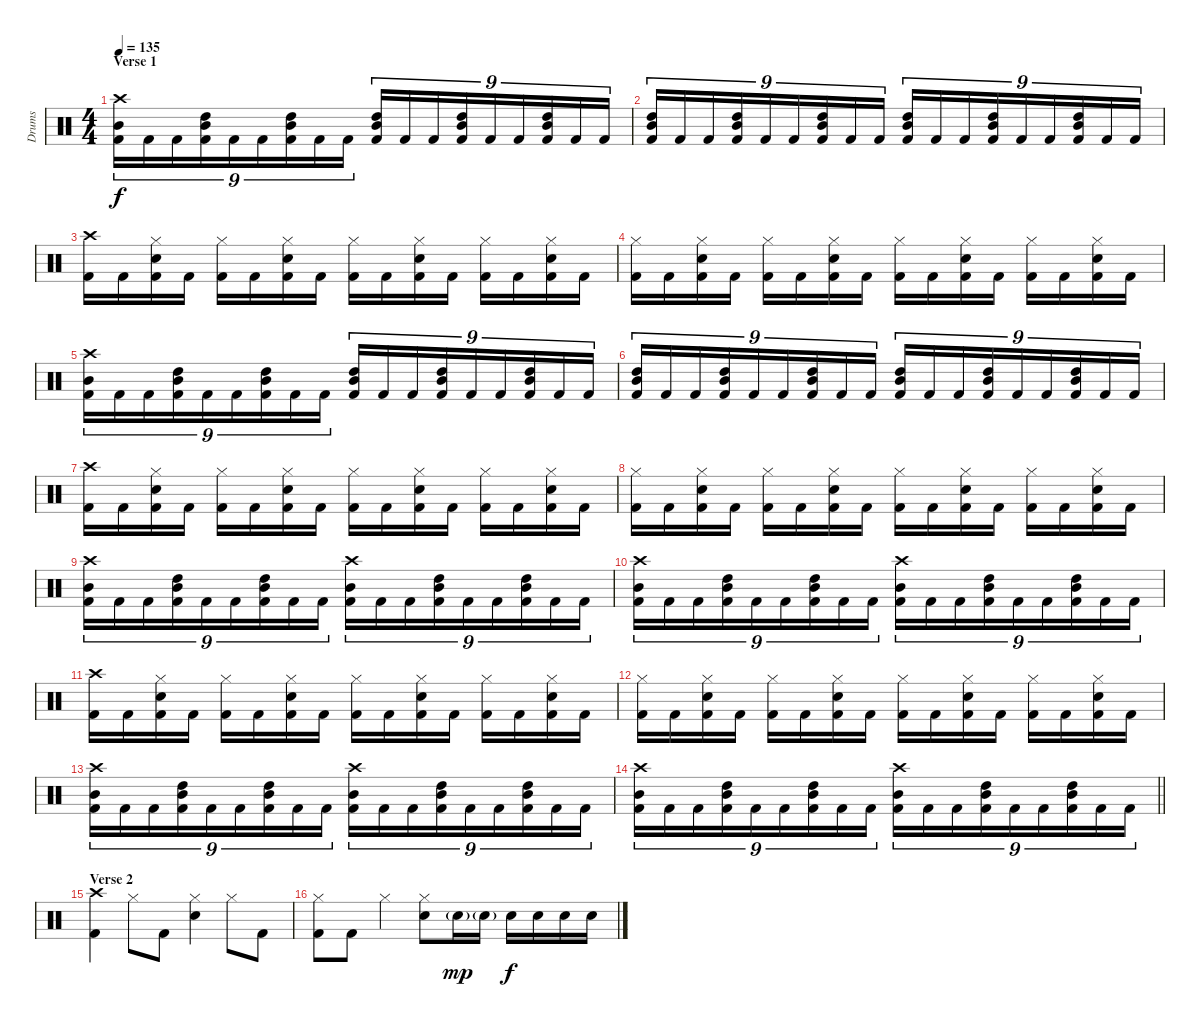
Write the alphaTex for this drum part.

\track ("Drums" "Drums") {instrument percussion}
\staff {score}
\articulation defaults
\ts (4 4)
\section ("" "Verse 1")
\tempo 135
\clef neutral
\ks c
("Crash high (hit)" "Mid Tom (hit)" "Kick (hit) 2").16{tu (9 8) dy f} "Kick (hit) 2".16{tu (9 8)} "Kick (hit) 2".16{tu (9 8)} ("High Tom (hit)" "Mid Tom (hit)" "Kick (hit) 2").16{tu (9 8)} "Kick (hit) 2".16{tu (9 8)} "Kick (hit) 2".16{tu (9 8)} ("High Tom (hit)" "Mid Tom (hit)" "Kick (hit) 2").16{tu (9 8)} "Kick (hit) 2".16{tu (9 8)} "Kick (hit) 2".16{tu (9 8)} ("High Tom (hit)" "Mid Tom (hit)" "Kick (hit) 2").16{tu (9 8)} "Kick (hit) 2".16{tu (9 8)} "Kick (hit) 2".16{tu (9 8)} ("High Tom (hit)" "Mid Tom (hit)" "Kick (hit) 2").16{tu (9 8)} "Kick (hit) 2".16{tu (9 8)} "Kick (hit) 2".16{tu (9 8)} ("High Tom (hit)" "Mid Tom (hit)" "Kick (hit) 2").16{tu (9 8)} "Kick (hit) 2".16{tu (9 8)} "Kick (hit) 2".16{tu (9 8)} |
("High Tom (hit)" "Mid Tom (hit)" "Kick (hit) 2").16{tu (9 8)} "Kick (hit) 2".16{tu (9 8)} "Kick (hit) 2".16{tu (9 8)} ("High Tom (hit)" "Mid Tom (hit)" "Kick (hit) 2").16{tu (9 8)} "Kick (hit) 2".16{tu (9 8)} "Kick (hit) 2".16{tu (9 8)} ("High Tom (hit)" "Mid Tom (hit)" "Kick (hit) 2").16{tu (9 8)} "Kick (hit) 2".16{tu (9 8)} "Kick (hit) 2".16{tu (9 8)} ("High Tom (hit)" "Mid Tom (hit)" "Kick (hit) 2").16{tu (9 8)} "Kick (hit) 2".16{tu (9 8)} "Kick (hit) 2".16{tu (9 8)} ("High Tom (hit)" "Mid Tom (hit)" "Kick (hit) 2").16{tu (9 8)} "Kick (hit) 2".16{tu (9 8)} "Kick (hit) 2".16{tu (9 8)} ("High Tom (hit)" "Mid Tom (hit)" "Kick (hit) 2").16{tu (9 8)} "Kick (hit) 2".16{tu (9 8)} "Kick (hit) 2".16{tu (9 8)} |
("Crash high (hit)" "Kick (hit) 2").16 "Kick (hit) 2".16 ("Hi-Hat (closed)" "Snare (hit) 2" "Kick (hit) 2").16 "Kick (hit) 2".16 ("Hi-Hat (closed)" "Kick (hit) 2").16 "Kick (hit) 2".16 ("Hi-Hat (closed)" "Snare (hit) 2" "Kick (hit) 2").16 "Kick (hit) 2".16 ("Hi-Hat (closed)" "Kick (hit) 2").16 "Kick (hit) 2".16 ("Hi-Hat (closed)" "Snare (hit) 2" "Kick (hit) 2").16 "Kick (hit) 2".16 ("Hi-Hat (closed)" "Kick (hit) 2").16 "Kick (hit) 2".16 ("Hi-Hat (closed)" "Snare (hit) 2" "Kick (hit) 2").16 "Kick (hit) 2".16 |
("Hi-Hat (closed)" "Kick (hit) 2").16 "Kick (hit) 2".16 ("Hi-Hat (closed)" "Snare (hit) 2" "Kick (hit) 2").16 "Kick (hit) 2".16 ("Hi-Hat (closed)" "Kick (hit) 2").16 "Kick (hit) 2".16 ("Hi-Hat (closed)" "Snare (hit) 2" "Kick (hit) 2").16 "Kick (hit) 2".16 ("Hi-Hat (closed)" "Kick (hit) 2").16 "Kick (hit) 2".16 ("Hi-Hat (closed)" "Snare (hit) 2" "Kick (hit) 2").16 "Kick (hit) 2".16 ("Hi-Hat (closed)" "Kick (hit) 2").16 "Kick (hit) 2".16 ("Hi-Hat (closed)" "Snare (hit) 2" "Kick (hit) 2").16 "Kick (hit) 2".16 |
("Crash high (hit)" "Mid Tom (hit)" "Kick (hit) 2").16{tu (9 8)} "Kick (hit) 2".16{tu (9 8)} "Kick (hit) 2".16{tu (9 8)} ("High Tom (hit)" "Mid Tom (hit)" "Kick (hit) 2").16{tu (9 8)} "Kick (hit) 2".16{tu (9 8)} "Kick (hit) 2".16{tu (9 8)} ("High Tom (hit)" "Mid Tom (hit)" "Kick (hit) 2").16{tu (9 8)} "Kick (hit) 2".16{tu (9 8)} "Kick (hit) 2".16{tu (9 8)} ("High Tom (hit)" "Mid Tom (hit)" "Kick (hit) 2").16{tu (9 8)} "Kick (hit) 2".16{tu (9 8)} "Kick (hit) 2".16{tu (9 8)} ("High Tom (hit)" "Mid Tom (hit)" "Kick (hit) 2").16{tu (9 8)} "Kick (hit) 2".16{tu (9 8)} "Kick (hit) 2".16{tu (9 8)} ("High Tom (hit)" "Mid Tom (hit)" "Kick (hit) 2").16{tu (9 8)} "Kick (hit) 2".16{tu (9 8)} "Kick (hit) 2".16{tu (9 8)} |
("High Tom (hit)" "Mid Tom (hit)" "Kick (hit) 2").16{tu (9 8)} "Kick (hit) 2".16{tu (9 8)} "Kick (hit) 2".16{tu (9 8)} ("High Tom (hit)" "Mid Tom (hit)" "Kick (hit) 2").16{tu (9 8)} "Kick (hit) 2".16{tu (9 8)} "Kick (hit) 2".16{tu (9 8)} ("High Tom (hit)" "Mid Tom (hit)" "Kick (hit) 2").16{tu (9 8)} "Kick (hit) 2".16{tu (9 8)} "Kick (hit) 2".16{tu (9 8)} ("High Tom (hit)" "Mid Tom (hit)" "Kick (hit) 2").16{tu (9 8)} "Kick (hit) 2".16{tu (9 8)} "Kick (hit) 2".16{tu (9 8)} ("High Tom (hit)" "Mid Tom (hit)" "Kick (hit) 2").16{tu (9 8)} "Kick (hit) 2".16{tu (9 8)} "Kick (hit) 2".16{tu (9 8)} ("High Tom (hit)" "Mid Tom (hit)" "Kick (hit) 2").16{tu (9 8)} "Kick (hit) 2".16{tu (9 8)} "Kick (hit) 2".16{tu (9 8)} |
("Crash high (hit)" "Kick (hit) 2").16 "Kick (hit) 2".16 ("Hi-Hat (closed)" "Snare (hit) 2" "Kick (hit) 2").16 "Kick (hit) 2".16 ("Hi-Hat (closed)" "Kick (hit) 2").16 "Kick (hit) 2".16 ("Hi-Hat (closed)" "Snare (hit) 2" "Kick (hit) 2").16 "Kick (hit) 2".16 ("Hi-Hat (closed)" "Kick (hit) 2").16 "Kick (hit) 2".16 ("Hi-Hat (closed)" "Snare (hit) 2" "Kick (hit) 2").16 "Kick (hit) 2".16 ("Hi-Hat (closed)" "Kick (hit) 2").16 "Kick (hit) 2".16 ("Hi-Hat (closed)" "Snare (hit) 2" "Kick (hit) 2").16 "Kick (hit) 2".16 |
("Hi-Hat (closed)" "Kick (hit) 2").16 "Kick (hit) 2".16 ("Hi-Hat (closed)" "Snare (hit) 2" "Kick (hit) 2").16 "Kick (hit) 2".16 ("Hi-Hat (closed)" "Kick (hit) 2").16 "Kick (hit) 2".16 ("Hi-Hat (closed)" "Snare (hit) 2" "Kick (hit) 2").16 "Kick (hit) 2".16 ("Hi-Hat (closed)" "Kick (hit) 2").16 "Kick (hit) 2".16 ("Hi-Hat (closed)" "Snare (hit) 2" "Kick (hit) 2").16 "Kick (hit) 2".16 ("Hi-Hat (closed)" "Kick (hit) 2").16 "Kick (hit) 2".16 ("Hi-Hat (closed)" "Snare (hit) 2" "Kick (hit) 2").16 "Kick (hit) 2".16 |
("Crash high (hit)" "Mid Tom (hit)" "Kick (hit) 2").16{tu (9 8)} "Kick (hit) 2".16{tu (9 8)} "Kick (hit) 2".16{tu (9 8)} ("High Tom (hit)" "Mid Tom (hit)" "Kick (hit) 2").16{tu (9 8)} "Kick (hit) 2".16{tu (9 8)} "Kick (hit) 2".16{tu (9 8)} ("High Tom (hit)" "Mid Tom (hit)" "Kick (hit) 2").16{tu (9 8)} "Kick (hit) 2".16{tu (9 8)} "Kick (hit) 2".16{tu (9 8)} ("Crash high (hit)" "Mid Tom (hit)" "Kick (hit) 2").16{tu (9 8)} "Kick (hit) 2".16{tu (9 8)} "Kick (hit) 2".16{tu (9 8)} ("High Tom (hit)" "Mid Tom (hit)" "Kick (hit) 2").16{tu (9 8)} "Kick (hit) 2".16{tu (9 8)} "Kick (hit) 2".16{tu (9 8)} ("High Tom (hit)" "Mid Tom (hit)" "Kick (hit) 2").16{tu (9 8)} "Kick (hit) 2".16{tu (9 8)} "Kick (hit) 2".16{tu (9 8)} |
("Crash high (hit)" "Mid Tom (hit)" "Kick (hit) 2").16{tu (9 8)} "Kick (hit) 2".16{tu (9 8)} "Kick (hit) 2".16{tu (9 8)} ("High Tom (hit)" "Mid Tom (hit)" "Kick (hit) 2").16{tu (9 8)} "Kick (hit) 2".16{tu (9 8)} "Kick (hit) 2".16{tu (9 8)} ("High Tom (hit)" "Mid Tom (hit)" "Kick (hit) 2").16{tu (9 8)} "Kick (hit) 2".16{tu (9 8)} "Kick (hit) 2".16{tu (9 8)} ("Crash high (hit)" "Mid Tom (hit)" "Kick (hit) 2").16{tu (9 8)} "Kick (hit) 2".16{tu (9 8)} "Kick (hit) 2".16{tu (9 8)} ("High Tom (hit)" "Mid Tom (hit)" "Kick (hit) 2").16{tu (9 8)} "Kick (hit) 2".16{tu (9 8)} "Kick (hit) 2".16{tu (9 8)} ("High Tom (hit)" "Mid Tom (hit)" "Kick (hit) 2").16{tu (9 8)} "Kick (hit) 2".16{tu (9 8)} "Kick (hit) 2".16{tu (9 8)} |
("Crash high (hit)" "Kick (hit) 2").16 "Kick (hit) 2".16 ("Hi-Hat (closed)" "Snare (hit) 2" "Kick (hit) 2").16 "Kick (hit) 2".16 ("Hi-Hat (closed)" "Kick (hit) 2").16 "Kick (hit) 2".16 ("Hi-Hat (closed)" "Snare (hit) 2" "Kick (hit) 2").16 "Kick (hit) 2".16 ("Hi-Hat (closed)" "Kick (hit) 2").16 "Kick (hit) 2".16 ("Hi-Hat (closed)" "Snare (hit) 2" "Kick (hit) 2").16 "Kick (hit) 2".16 ("Hi-Hat (closed)" "Kick (hit) 2").16 "Kick (hit) 2".16 ("Hi-Hat (closed)" "Snare (hit) 2" "Kick (hit) 2").16 "Kick (hit) 2".16 |
("Hi-Hat (closed)" "Kick (hit) 2").16 "Kick (hit) 2".16 ("Hi-Hat (closed)" "Snare (hit) 2" "Kick (hit) 2").16 "Kick (hit) 2".16 ("Hi-Hat (closed)" "Kick (hit) 2").16 "Kick (hit) 2".16 ("Hi-Hat (closed)" "Snare (hit) 2" "Kick (hit) 2").16 "Kick (hit) 2".16 ("Hi-Hat (closed)" "Kick (hit) 2").16 "Kick (hit) 2".16 ("Hi-Hat (closed)" "Snare (hit) 2" "Kick (hit) 2").16 "Kick (hit) 2".16 ("Hi-Hat (closed)" "Kick (hit) 2").16 "Kick (hit) 2".16 ("Hi-Hat (closed)" "Snare (hit) 2" "Kick (hit) 2").16 "Kick (hit) 2".16 |
("Crash high (hit)" "Mid Tom (hit)" "Kick (hit) 2").16{tu (9 8)} "Kick (hit) 2".16{tu (9 8)} "Kick (hit) 2".16{tu (9 8)} ("High Tom (hit)" "Mid Tom (hit)" "Kick (hit) 2").16{tu (9 8)} "Kick (hit) 2".16{tu (9 8)} "Kick (hit) 2".16{tu (9 8)} ("High Tom (hit)" "Mid Tom (hit)" "Kick (hit) 2").16{tu (9 8)} "Kick (hit) 2".16{tu (9 8)} "Kick (hit) 2".16{tu (9 8)} ("Crash high (hit)" "Mid Tom (hit)" "Kick (hit) 2").16{tu (9 8)} "Kick (hit) 2".16{tu (9 8)} "Kick (hit) 2".16{tu (9 8)} ("High Tom (hit)" "Mid Tom (hit)" "Kick (hit) 2").16{tu (9 8)} "Kick (hit) 2".16{tu (9 8)} "Kick (hit) 2".16{tu (9 8)} ("High Tom (hit)" "Mid Tom (hit)" "Kick (hit) 2").16{tu (9 8)} "Kick (hit) 2".16{tu (9 8)} "Kick (hit) 2".16{tu (9 8)} |
\barLineRight lightlight
("Crash high (hit)" "Mid Tom (hit)" "Kick (hit) 2").16{tu (9 8)} "Kick (hit) 2".16{tu (9 8)} "Kick (hit) 2".16{tu (9 8)} ("High Tom (hit)" "Mid Tom (hit)" "Kick (hit) 2").16{tu (9 8)} "Kick (hit) 2".16{tu (9 8)} "Kick (hit) 2".16{tu (9 8)} ("High Tom (hit)" "Mid Tom (hit)" "Kick (hit) 2").16{tu (9 8)} "Kick (hit) 2".16{tu (9 8)} "Kick (hit) 2".16{tu (9 8)} ("Crash high (hit)" "Mid Tom (hit)" "Kick (hit) 2").16{tu (9 8)} "Kick (hit) 2".16{tu (9 8)} "Kick (hit) 2".16{tu (9 8)} ("High Tom (hit)" "Mid Tom (hit)" "Kick (hit) 2").16{tu (9 8)} "Kick (hit) 2".16{tu (9 8)} "Kick (hit) 2".16{tu (9 8)} ("High Tom (hit)" "Mid Tom (hit)" "Kick (hit) 2").16{tu (9 8)} "Kick (hit) 2".16{tu (9 8)} "Kick (hit) 2".16{tu (9 8)} |
\section ("" "Verse 2")
("Crash high (hit)" "Kick (hit) 2").4 "Hi-Hat (closed)".8 "Kick (hit) 2".8 ("Hi-Hat (closed)" "Snare (hit) 2").4 "Hi-Hat (closed)".8 "Kick (hit) 2".8 |
("Hi-Hat (closed)" "Kick (hit) 2").8 "Kick (hit) 2".8 "Hi-Hat (closed)".4 ("Hi-Hat (closed)" "Snare (hit) 2").8 "Snare (hit) 2"{g}.16{dy mp} "Snare (hit) 2"{g}.16 "Snare (hit) 2".16{dy f} "Snare (hit) 2".16 "Snare (hit) 2".16 "Snare (hit) 2".16
